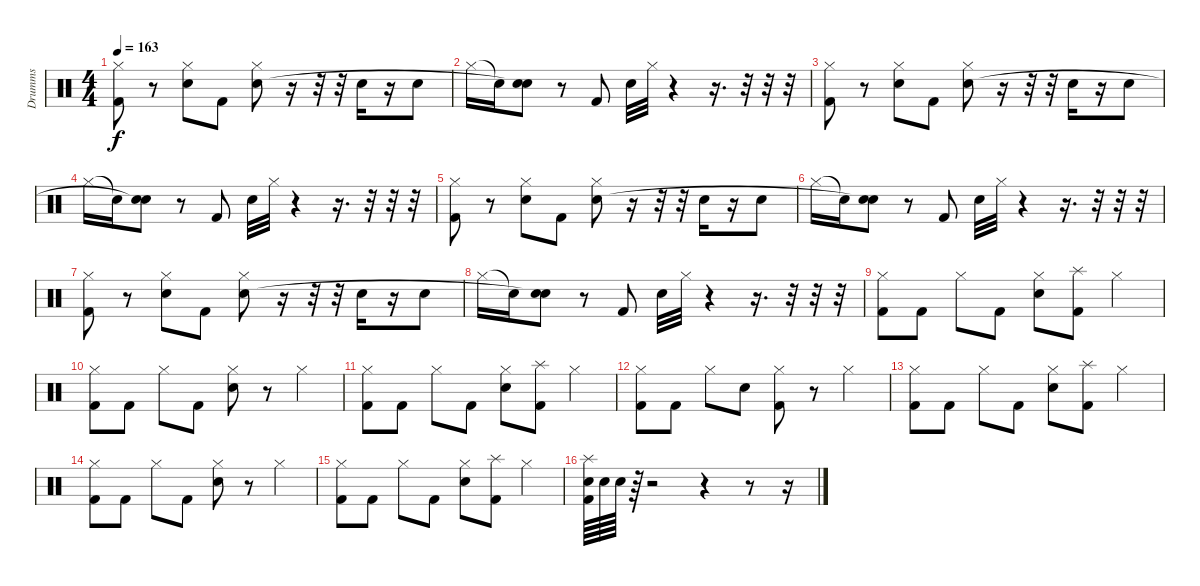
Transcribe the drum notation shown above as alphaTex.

\track ("Drumms" "Drumms") {instrument percussion}
\staff {score}
\articulation defaults
\ts (4 4)
\tempo 163
\clef neutral
\ks c
("Hi-Hat (closed)" "Kick (hit) 2").8{dy f} r.8 ("Hi-Hat (closed)" "Snare (hit) 2").8 "Kick (hit) 2".8 ("Hi-Hat (closed)" "Snare (hit) 2").8 r.16 r.32 r.32 "Snare (hit) 2".16 r.16 "Snare (hit) 2".8 |
"Hi-Hat (closed)".16 "Snare (hit)"{t}.16 ("Snare (hit) 2" "Snare (hit)"{t}).8 r.8 "Kick (hit) 2".8 "Snare (hit) 2".32 "Hi-Hat (closed)".32 r.4 r.16{d} r.32 r.32 r.32 |
("Hi-Hat (closed)" "Kick (hit) 2").8 r.8 ("Hi-Hat (closed)" "Snare (hit) 2").8 "Kick (hit) 2".8 ("Hi-Hat (closed)" "Snare (hit) 2").8 r.16 r.32 r.32 "Snare (hit) 2".16 r.16 "Snare (hit) 2".8 |
"Hi-Hat (closed)".16 "Snare (hit)"{t}.16 ("Snare (hit) 2" "Snare (hit)"{t}).8 r.8 "Kick (hit) 2".8 "Snare (hit) 2".32 "Hi-Hat (closed)".32 r.4 r.16{d} r.32 r.32 r.32 |
("Hi-Hat (closed)" "Kick (hit) 2").8 r.8 ("Hi-Hat (closed)" "Snare (hit) 2").8 "Kick (hit) 2".8 ("Hi-Hat (closed)" "Snare (hit) 2").8 r.16 r.32 r.32 "Snare (hit) 2".16 r.16 "Snare (hit) 2".8 |
"Hi-Hat (closed)".16 "Snare (hit)"{t}.16 ("Snare (hit) 2" "Snare (hit)"{t}).8 r.8 "Kick (hit) 2".8 "Snare (hit) 2".32 "Hi-Hat (closed)".32 r.4 r.16{d} r.32 r.32 r.32 |
("Hi-Hat (closed)" "Kick (hit) 2").8 r.8 ("Hi-Hat (closed)" "Snare (hit) 2").8 "Kick (hit) 2".8 ("Hi-Hat (closed)" "Snare (hit) 2").8 r.16 r.32 r.32 "Snare (hit) 2".16 r.16 "Snare (hit) 2".8 |
"Hi-Hat (closed)".16 "Snare (hit)"{t}.16 ("Snare (hit) 2" "Snare (hit)"{t}).8 r.8 "Kick (hit) 2".8 "Snare (hit) 2".32 "Hi-Hat (closed)".32 r.4 r.16{d} r.32 r.32 r.32 |
("Hi-Hat (closed)" "Kick (hit) 2").8 "Kick (hit) 2".8 "Hi-Hat (closed)".8 "Kick (hit) 2".8 ("Hi-Hat (closed)" "Snare (hit) 2").8 ("Splash (hit)" "Kick (hit) 2").8 "Hi-Hat (closed)".4 |
("Hi-Hat (closed)" "Kick (hit) 2").8 "Kick (hit) 2".8 "Hi-Hat (closed)".8 "Kick (hit) 2".8 ("Hi-Hat (closed)" "Snare (hit) 2").8 r.8 "Hi-Hat (closed)".4 |
("Hi-Hat (closed)" "Kick (hit) 2").8 "Kick (hit) 2".8 "Hi-Hat (closed)".8 "Kick (hit) 2".8 ("Hi-Hat (closed)" "Snare (hit) 2").8 ("Splash (hit)" "Kick (hit) 2").8 "Hi-Hat (closed)".4 |
("Hi-Hat (closed)" "Kick (hit) 2").8 "Kick (hit) 2".8 "Hi-Hat (closed)".8 "Snare (hit) 2".8 ("Hi-Hat (closed)" "Kick (hit) 2").8 r.8 "Hi-Hat (closed)".4 |
("Hi-Hat (closed)" "Kick (hit) 2").8 "Kick (hit) 2".8 "Hi-Hat (closed)".8 "Kick (hit) 2".8 ("Hi-Hat (closed)" "Snare (hit) 2").8 ("Splash (hit)" "Kick (hit) 2").8 "Hi-Hat (closed)".4 |
("Hi-Hat (closed)" "Kick (hit) 2").8 "Kick (hit) 2".8 "Hi-Hat (closed)".8 "Kick (hit) 2".8 ("Hi-Hat (closed)" "Snare (hit) 2").8 r.8 "Hi-Hat (closed)".4 |
("Hi-Hat (closed)" "Kick (hit) 2").8 "Kick (hit) 2".8 "Hi-Hat (closed)".8 "Kick (hit) 2".8 ("Hi-Hat (closed)" "Snare (hit) 2").8 ("Splash (hit)" "Kick (hit) 2").8 "Hi-Hat (closed)".4 |
("Splash (hit)" "Snare (hit) 2" "Kick (hit) 2").64 "Snare (hit) 2".64 "Snare (hit) 2".64 r.64 r.2 r.4 r.8 r.16
